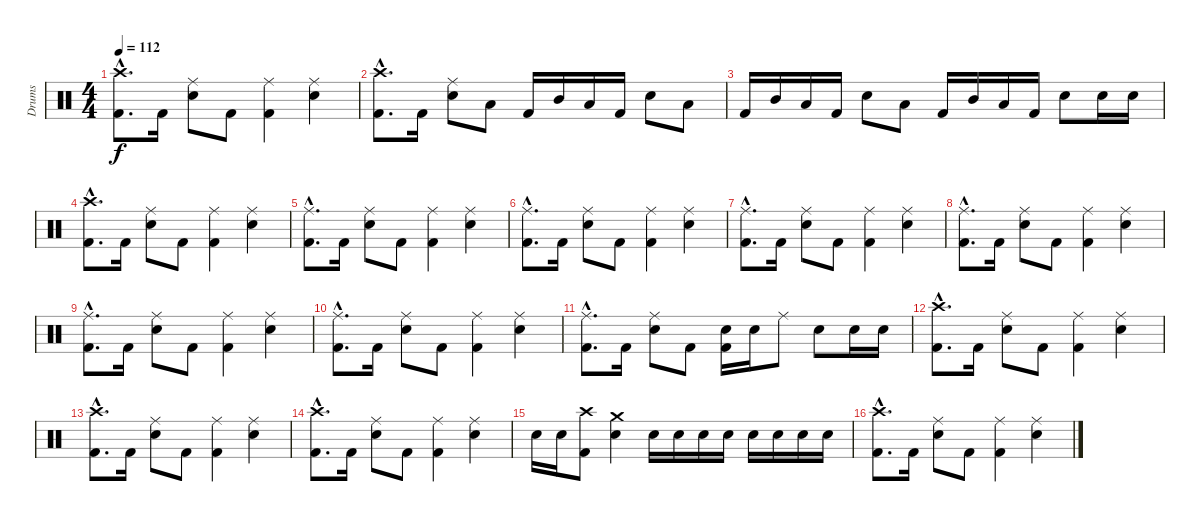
\track ("Drums" "Drums") {instrument percussion}
\staff {score}
\articulation defaults
\ts (4 4)
\tempo 112
\clef neutral
\ks c
("Crash high (hit)"{hac} "Kick (hit) 2"{hac}).8{d dy f} "Kick (hit) 2".16 ("Ride (middle)" "Electric Snare (hit)").8 "Kick (hit) 2".8 ("Ride (middle)" "Kick (hit) 2").4 ("Ride (middle)" "Electric Snare (hit)").4 |
("Crash high (hit)"{hac} "Kick (hit) 2"{hac}).8{d} "Kick (hit) 2".16 ("Ride (middle)" "Electric Snare (hit)").8 "Low Tom (hit)".8 "Kick (hit) 2".16 "Mid Tom (hit)".16 "Low Tom (hit)".16 "Kick (hit) 2".16 "Electric Snare (hit)".8 "Low Tom (hit)".8 |
"Kick (hit) 2".16 "Mid Tom (hit)".16 "Low Tom (hit)".16 "Kick (hit) 2".16 "Electric Snare (hit)".8 "Low Tom (hit)".8 "Kick (hit) 2".16 "Mid Tom (hit)".16 "Low Tom (hit)".16 "Kick (hit) 2".16 "Electric Snare (hit)".8 "Electric Snare (hit)".16 "Electric Snare (hit)".16 |
("Crash high (hit)"{hac} "Kick (hit) 2"{hac}).8{d} "Kick (hit) 2".16 ("Ride (middle)" "Electric Snare (hit)").8 "Kick (hit) 2".8 ("Ride (middle)" "Kick (hit) 2").4 ("Ride (middle)" "Electric Snare (hit)").4 |
("Ride (middle)"{hac} "Kick (hit) 2"{hac}).8{d} "Kick (hit) 2".16 ("Ride (middle)" "Electric Snare (hit)").8 "Kick (hit) 2".8 ("Ride (middle)" "Kick (hit) 2").4 ("Ride (middle)" "Electric Snare (hit)").4 |
("Ride (middle)"{hac} "Kick (hit) 2"{hac}).8{d} "Kick (hit) 2".16 ("Ride (middle)" "Electric Snare (hit)").8 "Kick (hit) 2".8 ("Ride (middle)" "Kick (hit) 2").4 ("Ride (middle)" "Electric Snare (hit)").4 |
("Ride (middle)"{hac} "Kick (hit) 2"{hac}).8{d} "Kick (hit) 2".16 ("Ride (middle)" "Electric Snare (hit)").8 "Kick (hit) 2".8 ("Ride (middle)" "Kick (hit) 2").4 ("Ride (middle)" "Electric Snare (hit)").4 |
("Ride (middle)"{hac} "Kick (hit) 2"{hac}).8{d} "Kick (hit) 2".16 ("Ride (middle)" "Electric Snare (hit)").8 "Kick (hit) 2".8 ("Ride (middle)" "Kick (hit) 2").4 ("Ride (middle)" "Electric Snare (hit)").4 |
("Ride (middle)"{hac} "Kick (hit) 2"{hac}).8{d} "Kick (hit) 2".16 ("Ride (middle)" "Electric Snare (hit)").8 "Kick (hit) 2".8 ("Ride (middle)" "Kick (hit) 2").4 ("Ride (middle)" "Electric Snare (hit)").4 |
("Ride (middle)"{hac} "Kick (hit) 2"{hac}).8{d} "Kick (hit) 2".16 ("Ride (middle)" "Electric Snare (hit)").8 "Kick (hit) 2".8 ("Ride (middle)" "Kick (hit) 2").4 ("Ride (middle)" "Electric Snare (hit)").4 |
("Ride (middle)"{hac} "Kick (hit) 2"{hac}).8{d} "Kick (hit) 2".16 ("Ride (middle)" "Electric Snare (hit)").8 "Kick (hit) 2".8 ("Electric Snare (hit)" "Kick (hit) 2").16 "Electric Snare (hit)".16 "Ride (middle)".8 "Electric Snare (hit)".8 "Electric Snare (hit)".16 "Electric Snare (hit)".16 |
("Crash high (hit)"{hac} "Kick (hit) 2"{hac}).8{d} "Kick (hit) 2".16 ("Ride (middle)" "Electric Snare (hit)").8 "Kick (hit) 2".8 ("Ride (middle)" "Kick (hit) 2").4 ("Ride (middle)" "Electric Snare (hit)").4 |
("Crash high (hit)"{hac} "Kick (hit) 2"{hac}).8{d} "Kick (hit) 2".16 ("Ride (middle)" "Electric Snare (hit)").8 "Kick (hit) 2".8 ("Ride (middle)" "Kick (hit) 2").4 ("Ride (middle)" "Electric Snare (hit)").4 |
("Crash high (hit)"{hac} "Kick (hit) 2"{hac}).8{d} "Kick (hit) 2".16 ("Ride (middle)" "Electric Snare (hit)").8 "Kick (hit) 2".8 ("Ride (middle)" "Kick (hit) 2").4 ("Ride (middle)" "Electric Snare (hit)").4 |
"Electric Snare (hit)".16 "Electric Snare (hit)".16 ("Crash high (hit)" "Kick (hit) 2").8 ("Crash medium (hit)" "Electric Snare (hit)").4 "Electric Snare (hit)".16 "Electric Snare (hit)".16 "Electric Snare (hit)".16 "Electric Snare (hit)".16 "Electric Snare (hit)".16 "Electric Snare (hit)".16 "Electric Snare (hit)".16 "Electric Snare (hit)".16 |
("Crash high (hit)"{hac} "Kick (hit) 2"{hac}).8{d} "Kick (hit) 2".16 ("Ride (middle)" "Electric Snare (hit)").8 "Kick (hit) 2".8 ("Ride (middle)" "Kick (hit) 2").4 ("Ride (middle)" "Electric Snare (hit)").4
